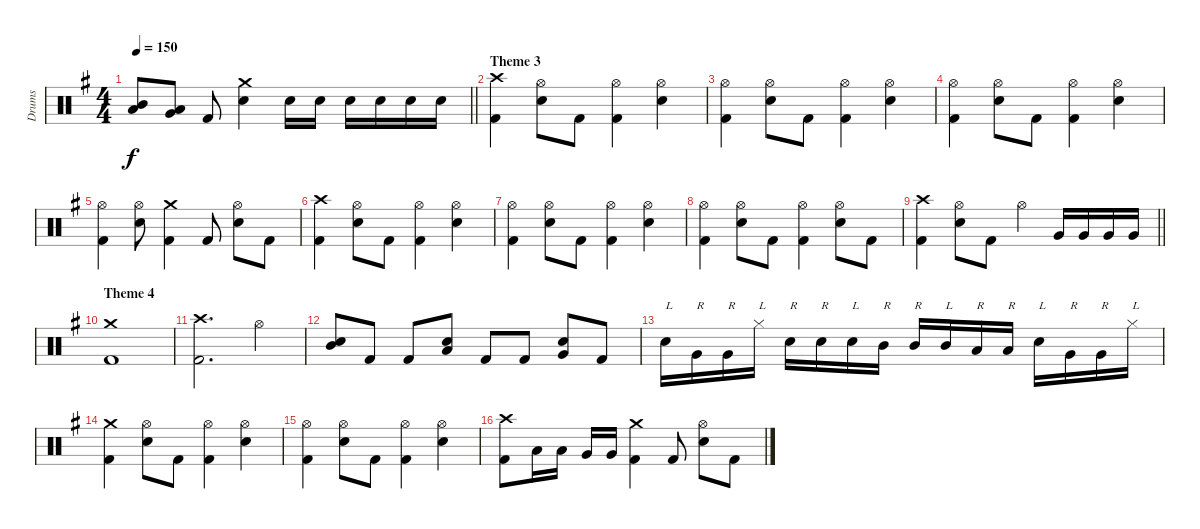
\track ("Drums" "Drums") {instrument percussion}
\staff {score}
\articulation defaults
\ts (4 4)
\tempo 150
\clef neutral
\barLineRight lightlight
\ks eminor
("Mid Tom (hit)" "Low Tom (hit)").8{dy f} ("Low Tom (hit)" "Very Low Tom (hit)").8 "Kick (hit) 2".8 ("Crash medium (hit)" "Electric Snare (hit)").4 "Electric Snare (hit)".16 "Electric Snare (hit)".16 "Electric Snare (hit)".16 "Electric Snare (hit)".16 "Electric Snare (hit)".16 "Electric Snare (hit)".16 |
\section ("" "Theme 3")
("Crash high (hit)" "Kick (hit) 2").4 ("Hi-Hat (open)" "Electric Snare (hit)").8 "Kick (hit) 2".8 ("Hi-Hat (open)" "Kick (hit) 2").4 ("Hi-Hat (open)" "Electric Snare (hit)").4 |
("Hi-Hat (open)" "Kick (hit) 2").4 ("Hi-Hat (open)" "Electric Snare (hit)").8 "Kick (hit) 2".8 ("Hi-Hat (open)" "Kick (hit) 2").4 ("Hi-Hat (open)" "Electric Snare (hit)").4 |
("Hi-Hat (open)" "Kick (hit) 2").4 ("Hi-Hat (open)" "Electric Snare (hit)").8 "Kick (hit) 2".8 ("Hi-Hat (open)" "Kick (hit) 2").4 ("Hi-Hat (open)" "Electric Snare (hit)").4 |
("Hi-Hat (open)" "Kick (hit) 2").4 ("Hi-Hat (open)" "Electric Snare (hit)").8 ("Crash medium (hit)" "Kick (hit) 2").4 "Kick (hit) 2".8 ("Hi-Hat (open)" "Electric Snare (hit)").8 "Kick (hit) 2".8 |
("Crash high (hit)" "Kick (hit) 2").4 ("Hi-Hat (open)" "Electric Snare (hit)").8 "Kick (hit) 2".8 ("Hi-Hat (open)" "Kick (hit) 2").4 ("Hi-Hat (open)" "Electric Snare (hit)").4 |
("Hi-Hat (open)" "Kick (hit) 2").4 ("Hi-Hat (open)" "Electric Snare (hit)").8 "Kick (hit) 2".8 ("Hi-Hat (open)" "Kick (hit) 2").4 ("Hi-Hat (open)" "Electric Snare (hit)").4 |
("Hi-Hat (open)" "Kick (hit) 2").4 ("Hi-Hat (open)" "Electric Snare (hit)").8 "Kick (hit) 2".8 ("Hi-Hat (open)" "Kick (hit) 2").4 ("Hi-Hat (open)" "Electric Snare (hit)").8 "Kick (hit) 2".8 |
\barLineRight lightlight
("Crash high (hit)" "Kick (hit) 2").4 ("Hi-Hat (open)" "Electric Snare (hit)").8 "Kick (hit) 2".8 "Hi-Hat (open)".4 "Very Low Tom (hit)".16 "Very Low Tom (hit)".16 "Very Low Tom (hit)".16 "Very Low Tom (hit)".16 |
\section ("" "Theme 4")
("Crash medium (hit)" "Kick (hit) 2").1 |
("Crash high (hit)" "Kick (hit) 2").2{d} "Hi-Hat (open)".4 |
("Mid Tom (hit)" "Electric Snare (hit)").8 "Kick (hit) 2".8 "Kick (hit) 2".8 ("Low Tom (hit)" "Electric Snare (hit)").8 "Kick (hit) 2".8 "Kick (hit) 2".8 ("Very Low Tom (hit)" "Electric Snare (hit)").8 "Kick (hit) 2".8 |
"Electric Snare (hit)".16{txt "L"} "Very Low Tom (hit)".16{txt "R"} "Very Low Tom (hit)".16{txt "R"} "Hi-Hat (closed)".16{txt "L"} "Electric Snare (hit)".16{txt "R"} "Electric Snare (hit)".16{txt "R"} "Electric Snare (hit)".16{txt "L"} "Mid Tom (hit)".16{txt "R"} "Mid Tom (hit)".16{txt "R"} "Mid Tom (hit)".16{txt "L"} "Low Tom (hit)".16{txt "R"} "Low Tom (hit)".16{txt "R"} "Electric Snare (hit)".16{txt "L"} "Very Low Tom (hit)".16{txt "R"} "Very Low Tom (hit)".16{txt "R"} "Hi-Hat (closed)".16{txt "L"} |
("Crash medium (hit)" "Kick (hit) 2").4 ("Hi-Hat (open)" "Electric Snare (hit)").8 "Kick (hit) 2".8 ("Hi-Hat (open)" "Kick (hit) 2").4 ("Hi-Hat (open)" "Electric Snare (hit)").4 |
("Hi-Hat (open)" "Kick (hit) 2").4 ("Hi-Hat (open)" "Electric Snare (hit)").8 "Kick (hit) 2".8 ("Hi-Hat (open)" "Kick (hit) 2").4 ("Hi-Hat (open)" "Electric Snare (hit)").4 |
("Crash high (hit)" "Kick (hit) 2").8 "Low Tom (hit)".16 "Low Tom (hit)".16 "Very Low Tom (hit)".16 "Very Low Tom (hit)".16 ("Crash medium (hit)" "Kick (hit) 2").4 "Kick (hit) 2".8 ("Hi-Hat (open)" "Electric Snare (hit)").8 "Kick (hit) 2".8
